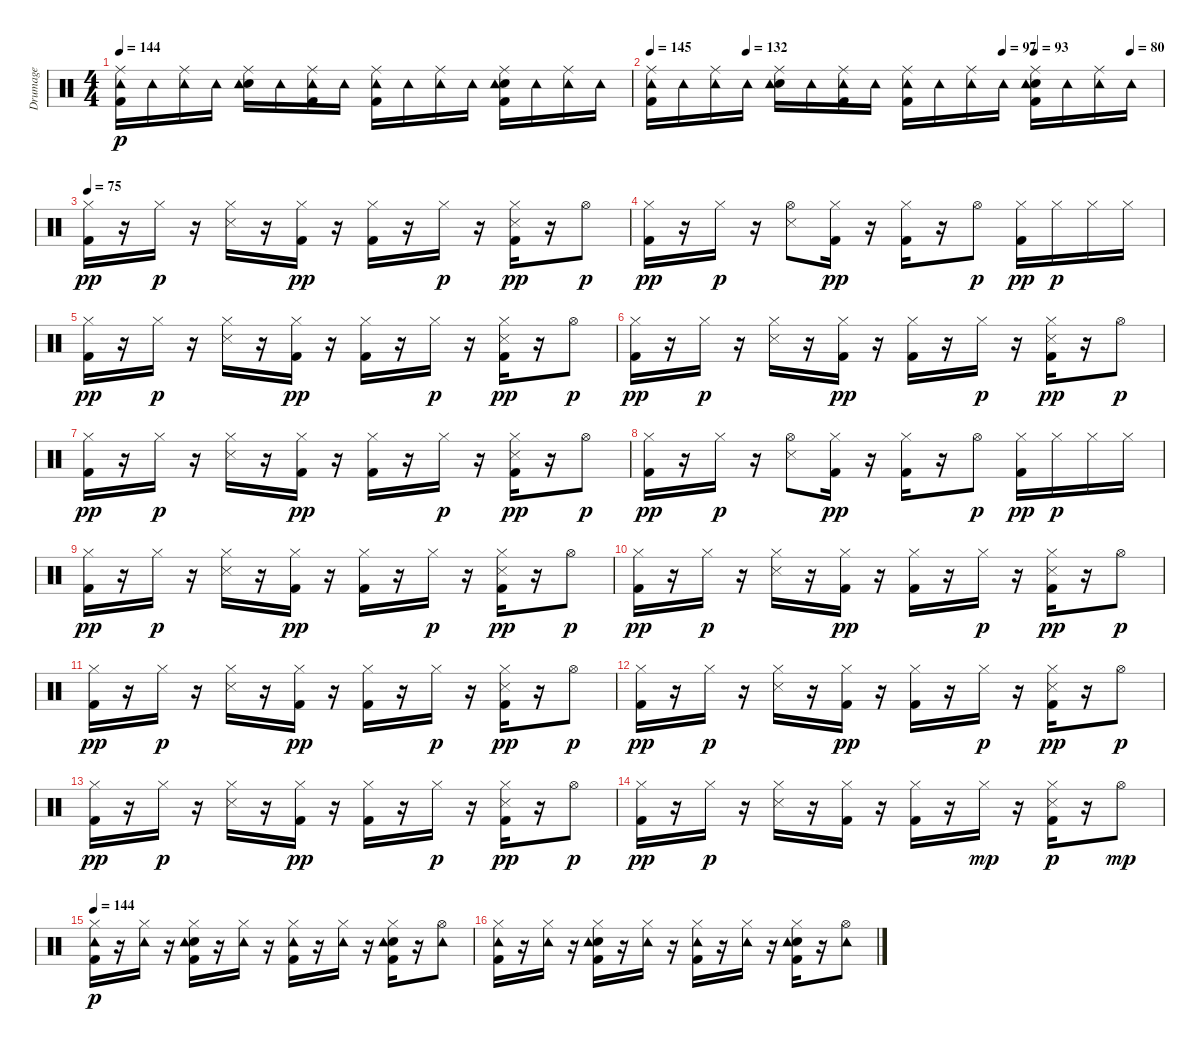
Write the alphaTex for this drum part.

\track ("Drumage" "Drumage") {instrument percussion}
\staff {score}
\articulation defaults
\ts (4 4)
\tempo 144
\clef neutral
\ks c
("Ride (middle)" "Kick (hit) 2" "Tambourine (hit)").16{dy p} "Tambourine (hit)".16 ("Ride (middle)" "Tambourine (hit)").16 "Tambourine (hit)".16 ("Ride (middle)" "Electric Snare (hit)" "Tambourine (hit)").16 "Tambourine (hit)".16 ("Ride (middle)" "Kick (hit) 2" "Tambourine (hit)").16 "Tambourine (hit)".16 ("Ride (middle)" "Kick (hit) 2" "Tambourine (hit)").16 "Tambourine (hit)".16 ("Ride (middle)" "Tambourine (hit)").16 "Tambourine (hit)".16 ("Ride (middle)" "Electric Snare (hit)" "Kick (hit) 2" "Tambourine (hit)").16 "Tambourine (hit)".16 ("Ride (middle)" "Tambourine (hit)").16 "Tambourine (hit)".16 |
\tempo 145
\tempo (132 0.1875)
\tempo (97 0.6875)
\tempo (93 0.75)
\tempo (80 0.9375)
("Ride (middle)" "Kick (hit) 2" "Tambourine (hit)").16 "Tambourine (hit)".16 ("Ride (middle)" "Tambourine (hit)").16 "Tambourine (hit)".16 ("Ride (middle)" "Electric Snare (hit)" "Tambourine (hit)").16 "Tambourine (hit)".16 ("Ride (middle)" "Kick (hit) 2" "Tambourine (hit)").16 "Tambourine (hit)".16 ("Ride (middle)" "Kick (hit) 2" "Tambourine (hit)").16 "Tambourine (hit)".16 ("Ride (middle)" "Tambourine (hit)").16 "Tambourine (hit)".16 ("Ride (middle)" "Electric Snare (hit)" "Kick (hit) 2" "Tambourine (hit)").16 "Tambourine (hit)".16 ("Ride (middle)" "Tambourine (hit)").16 "Tambourine (hit)".16 |
\tempo 75
("Hi-Hat (closed)" "Kick (hit) 2").16{dy pp} r.16 "Hi-Hat (closed)".16{dy p} r.16 ("Hi-Hat (closed)" "Snare (side stick) 3").16 r.16 ("Hi-Hat (closed)" "Kick (hit) 2").16{dy pp} r.16 ("Hi-Hat (closed)" "Kick (hit) 2").16 r.16 "Hi-Hat (closed)".16{dy p} r.16 ("Hi-Hat (closed)" "Snare (side stick) 3" "Kick (hit) 2").16{dy pp} r.16 "Hi-Hat (open)".8{dy p} |
("Hi-Hat (closed)" "Kick (hit) 2").16{dy pp} r.16 "Hi-Hat (closed)".16{dy p} r.16 ("Hi-Hat (open)" "Snare (side stick) 3").8 ("Hi-Hat (closed)" "Kick (hit) 2").16{dy pp} r.16 ("Hi-Hat (closed)" "Kick (hit) 2").16 r.16 "Hi-Hat (open)".8{dy p} ("Hi-Hat (closed)" "Kick (hit) 2").16{dy pp} "Hi-Hat (closed)".16{dy p} "Hi-Hat (closed)".16 "Hi-Hat (closed)".16 |
("Hi-Hat (closed)" "Kick (hit) 2").16{dy pp} r.16 "Hi-Hat (closed)".16{dy p} r.16 ("Hi-Hat (closed)" "Snare (side stick) 3").16 r.16 ("Hi-Hat (closed)" "Kick (hit) 2").16{dy pp} r.16 ("Hi-Hat (closed)" "Kick (hit) 2").16 r.16 "Hi-Hat (closed)".16{dy p} r.16 ("Hi-Hat (closed)" "Snare (side stick) 3" "Kick (hit) 2").16{dy pp} r.16 "Hi-Hat (open)".8{dy p} |
("Hi-Hat (closed)" "Kick (hit) 2").16{dy pp} r.16 "Hi-Hat (closed)".16{dy p} r.16 ("Hi-Hat (closed)" "Snare (side stick) 3").16 r.16 ("Hi-Hat (closed)" "Kick (hit) 2").16{dy pp} r.16 ("Hi-Hat (closed)" "Kick (hit) 2").16 r.16 "Hi-Hat (closed)".16{dy p} r.16 ("Hi-Hat (closed)" "Snare (side stick) 3" "Kick (hit) 2").16{dy pp} r.16 "Hi-Hat (open)".8{dy p} |
("Hi-Hat (closed)" "Kick (hit) 2").16{dy pp} r.16 "Hi-Hat (closed)".16{dy p} r.16 ("Hi-Hat (closed)" "Snare (side stick) 3").16 r.16 ("Hi-Hat (closed)" "Kick (hit) 2").16{dy pp} r.16 ("Hi-Hat (closed)" "Kick (hit) 2").16 r.16 "Hi-Hat (closed)".16{dy p} r.16 ("Hi-Hat (closed)" "Snare (side stick) 3" "Kick (hit) 2").16{dy pp} r.16 "Hi-Hat (open)".8{dy p} |
("Hi-Hat (closed)" "Kick (hit) 2").16{dy pp} r.16 "Hi-Hat (closed)".16{dy p} r.16 ("Hi-Hat (open)" "Snare (side stick) 3").8 ("Hi-Hat (closed)" "Kick (hit) 2").16{dy pp} r.16 ("Hi-Hat (closed)" "Kick (hit) 2").16 r.16 "Hi-Hat (open)".8{dy p} ("Hi-Hat (closed)" "Kick (hit) 2").16{dy pp} "Hi-Hat (closed)".16{dy p} "Hi-Hat (closed)".16 "Hi-Hat (closed)".16 |
("Hi-Hat (closed)" "Kick (hit) 2").16{dy pp} r.16 "Hi-Hat (closed)".16{dy p} r.16 ("Hi-Hat (closed)" "Snare (side stick) 3").16 r.16 ("Hi-Hat (closed)" "Kick (hit) 2").16{dy pp} r.16 ("Hi-Hat (closed)" "Kick (hit) 2").16 r.16 "Hi-Hat (closed)".16{dy p} r.16 ("Hi-Hat (closed)" "Snare (side stick) 3" "Kick (hit) 2").16{dy pp} r.16 "Hi-Hat (open)".8{dy p} |
("Hi-Hat (closed)" "Kick (hit) 2").16{dy pp} r.16 "Hi-Hat (closed)".16{dy p} r.16 ("Hi-Hat (closed)" "Snare (side stick) 3").16 r.16 ("Hi-Hat (closed)" "Kick (hit) 2").16{dy pp} r.16 ("Hi-Hat (closed)" "Kick (hit) 2").16 r.16 "Hi-Hat (closed)".16{dy p} r.16 ("Hi-Hat (closed)" "Snare (side stick) 3" "Kick (hit) 2").16{dy pp} r.16 "Hi-Hat (open)".8{dy p} |
("Hi-Hat (closed)" "Kick (hit) 2").16{dy pp} r.16 "Hi-Hat (closed)".16{dy p} r.16 ("Hi-Hat (closed)" "Snare (side stick) 3").16 r.16 ("Hi-Hat (closed)" "Kick (hit) 2").16{dy pp} r.16 ("Hi-Hat (closed)" "Kick (hit) 2").16 r.16 "Hi-Hat (closed)".16{dy p} r.16 ("Hi-Hat (closed)" "Snare (side stick) 3" "Kick (hit) 2").16{dy pp} r.16 "Hi-Hat (open)".8{dy p} |
("Hi-Hat (closed)" "Kick (hit) 2").16{dy pp} r.16 "Hi-Hat (closed)".16{dy p} r.16 ("Hi-Hat (closed)" "Snare (side stick) 3").16 r.16 ("Hi-Hat (closed)" "Kick (hit) 2").16{dy pp} r.16 ("Hi-Hat (closed)" "Kick (hit) 2").16 r.16 "Hi-Hat (closed)".16{dy p} r.16 ("Hi-Hat (closed)" "Snare (side stick) 3" "Kick (hit) 2").16{dy pp} r.16 "Hi-Hat (open)".8{dy p} |
("Hi-Hat (closed)" "Kick (hit) 2").16{dy pp} r.16 "Hi-Hat (closed)".16{dy p} r.16 ("Hi-Hat (closed)" "Snare (side stick) 3").16 r.16 ("Hi-Hat (closed)" "Kick (hit) 2").16{dy pp} r.16 ("Hi-Hat (closed)" "Kick (hit) 2").16 r.16 "Hi-Hat (closed)".16{dy p} r.16 ("Hi-Hat (closed)" "Snare (side stick) 3" "Kick (hit) 2").16{dy pp} r.16 "Hi-Hat (open)".8{dy p} |
("Hi-Hat (closed)" "Kick (hit) 2").16{dy pp} r.16 "Hi-Hat (closed)".16{dy p} r.16 ("Hi-Hat (closed)" "Snare (side stick) 3").16 r.16 ("Hi-Hat (closed)" "Kick (hit) 2").16 r.16 ("Hi-Hat (closed)" "Kick (hit) 2").16 r.16 "Hi-Hat (closed)".16{dy mp} r.16 ("Hi-Hat (closed)" "Snare (side stick) 3" "Kick (hit) 2").16{dy p} r.16 "Hi-Hat (open)".8{dy mp} |
\tempo 144
("Hi-Hat (closed)" "Kick (hit) 2" "Tambourine (hit)").16{dy p} r.16 ("Hi-Hat (closed)" "Tambourine (hit)").16 r.16 ("Hi-Hat (closed)" "Electric Snare (hit)" "Kick (hit) 2" "Tambourine (hit)").16 r.16 ("Hi-Hat (closed)" "Tambourine (hit)").16 r.16 ("Hi-Hat (closed)" "Kick (hit) 2" "Tambourine (hit)").16 r.16 ("Hi-Hat (closed)" "Tambourine (hit)").16 r.16 ("Hi-Hat (closed)" "Electric Snare (hit)" "Kick (hit) 2" "Tambourine (hit)").16 r.16 ("Hi-Hat (open)" "Tambourine (hit)").8 |
("Hi-Hat (closed)" "Kick (hit) 2" "Tambourine (hit)").16 r.16 ("Hi-Hat (closed)" "Tambourine (hit)").16 r.16 ("Hi-Hat (closed)" "Electric Snare (hit)" "Kick (hit) 2" "Tambourine (hit)").16 r.16 ("Hi-Hat (closed)" "Tambourine (hit)").16 r.16 ("Hi-Hat (closed)" "Kick (hit) 2" "Tambourine (hit)").16 r.16 ("Hi-Hat (closed)" "Tambourine (hit)").16 r.16 ("Hi-Hat (closed)" "Electric Snare (hit)" "Kick (hit) 2" "Tambourine (hit)").16 r.16 ("Hi-Hat (open)" "Tambourine (hit)").8
